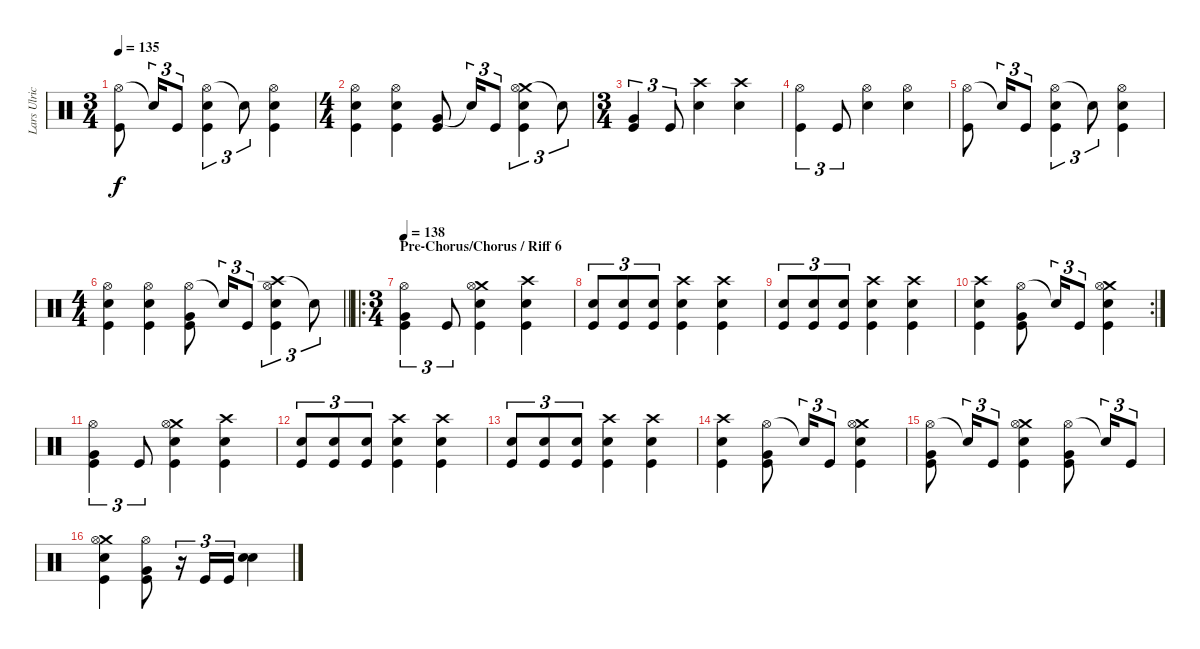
\track ("Lars Ulrich" "Lars Ulric") {instrument percussion}
\staff {score}
\articulation defaults
\ts (3 4)
\tempo 135
\clef neutral
\ks c
("Hi-Hat (open)" "Kick (hit)").8{dy f} "Snare (hit)"{t}.16{tu (3 2)} "Kick (hit)".8{tu (3 2)} ("Hi-Hat (open)" "Snare (hit) 2" "Kick (hit)").4{tu (3 2)} "Snare (hit)"{t}.8{tu (3 2)} ("Hi-Hat (open)" "Snare (hit) 2" "Kick (hit)").4 |
\ts (4 4)
("Hi-Hat (open)" "Snare (hit) 2" "Kick (hit)").4 ("Hi-Hat (open)" "Snare (hit) 2" "Kick (hit)").4 ("Very Low Tom (hit)" "Kick (hit)").8 "Snare (hit)"{t}.16{tu (3 2)} "Kick (hit)".8{tu (3 2)} ("Crash medium (hit)" "Hi-Hat (open)" "Snare (hit) 2" "Kick (hit)").4{tu (3 2)} "Snare (hit)"{t}.8{tu (3 2)} |
\ts (3 4)
("Very Low Tom (hit)" "Kick (hit)").4{tu (3 2)} "Kick (hit)".8{tu (3 2)} ("Crash high (hit)" "Snare (hit) 2").4 ("Crash high (hit)" "Snare (hit) 2").4 |
("Hi-Hat (open)" "Kick (hit)").4{tu (3 2)} "Kick (hit)".8{tu (3 2)} ("Hi-Hat (open)" "Snare (hit) 2").4 ("Hi-Hat (open)" "Snare (hit) 2").4 |
("Hi-Hat (open)" "Kick (hit)").8 "Snare (hit)"{t}.16{tu (3 2)} "Kick (hit)".8{tu (3 2)} ("Hi-Hat (open)" "Snare (hit) 2" "Kick (hit)").4{tu (3 2)} "Snare (hit)"{t}.8{tu (3 2)} ("Hi-Hat (open)" "Snare (hit) 2" "Kick (hit)").4 |
\ts (4 4)
\barLineRight lightlight
("Hi-Hat (open)" "Snare (hit) 2" "Kick (hit)").4 ("Hi-Hat (open)" "Snare (hit) 2" "Kick (hit)").4 ("Hi-Hat (open)" "Very Low Tom (hit)" "Kick (hit)").8 "Snare (hit)"{t}.16{tu (3 2)} "Kick (hit)".8{tu (3 2)} ("Crash high (hit)" "Hi-Hat (open)" "Snare (hit) 2" "Kick (hit)").4{tu (3 2)} "Snare (hit)"{t}.8{tu (3 2)} |
\ro
\ts (3 4)
\section ("" "Pre-Chorus/Chorus / Riff 6")
\tempo 138
("Hi-Hat (open)" "Very Low Tom (hit)" "Kick (hit)").4{tu (3 2)} "Kick (hit)".8{tu (3 2)} ("Crash medium (hit)" "Hi-Hat (open)" "Snare (hit) 2" "Kick (hit)").4 ("Crash high (hit)" "Snare (hit) 2" "Kick (hit)").4 |
("Snare (hit) 2" "Kick (hit)").8{tu (3 2)} ("Snare (hit) 2" "Kick (hit)").8{tu (3 2)} ("Snare (hit) 2" "Kick (hit)").8{tu (3 2)} ("Crash high (hit)" "Snare (hit) 2" "Kick (hit)").4 ("Crash high (hit)" "Snare (hit) 2" "Kick (hit)").4 |
("Snare (hit) 2" "Kick (hit)").8{tu (3 2)} ("Snare (hit) 2" "Kick (hit)").8{tu (3 2)} ("Snare (hit) 2" "Kick (hit)").8{tu (3 2)} ("Crash high (hit)" "Snare (hit) 2" "Kick (hit)").4 ("Crash high (hit)" "Snare (hit) 2" "Kick (hit)").4 |
\rc 2
("Crash high (hit)" "Snare (hit) 2" "Kick (hit)").4 ("Hi-Hat (open)" "Very Low Tom (hit)" "Kick (hit)").8 "Snare (hit)"{t}.16{tu (3 2)} "Kick (hit)".8{tu (3 2)} ("Crash medium (hit)" "Hi-Hat (open)" "Snare (hit) 2" "Kick (hit)").4 |
("Hi-Hat (open)" "Very Low Tom (hit)" "Kick (hit)").4{tu (3 2)} "Kick (hit)".8{tu (3 2)} ("Crash medium (hit)" "Hi-Hat (open)" "Snare (hit) 2" "Kick (hit)").4 ("Crash high (hit)" "Snare (hit) 2" "Kick (hit)").4 |
("Snare (hit) 2" "Kick (hit)").8{tu (3 2)} ("Snare (hit) 2" "Kick (hit)").8{tu (3 2)} ("Snare (hit) 2" "Kick (hit)").8{tu (3 2)} ("Crash high (hit)" "Snare (hit) 2" "Kick (hit)").4 ("Crash high (hit)" "Snare (hit) 2" "Kick (hit)").4 |
("Snare (hit) 2" "Kick (hit)").8{tu (3 2)} ("Snare (hit) 2" "Kick (hit)").8{tu (3 2)} ("Snare (hit) 2" "Kick (hit)").8{tu (3 2)} ("Crash high (hit)" "Snare (hit) 2" "Kick (hit)").4 ("Crash high (hit)" "Snare (hit) 2" "Kick (hit)").4 |
("Crash high (hit)" "Snare (hit) 2" "Kick (hit)").4 ("Hi-Hat (open)" "Very Low Tom (hit)" "Kick (hit)").8 "Snare (hit)"{t}.16{tu (3 2)} "Kick (hit)".8{tu (3 2)} ("Crash medium (hit)" "Hi-Hat (open)" "Snare (hit) 2" "Kick (hit)").4 |
("Hi-Hat (open)" "Very Low Tom (hit)" "Kick (hit)").8 "Snare (hit)"{t}.16{tu (3 2)} "Kick (hit)".8{tu (3 2)} ("Crash medium (hit)" "Hi-Hat (open)" "Snare (hit) 2" "Kick (hit)").4 ("Hi-Hat (open)" "Very Low Tom (hit)" "Kick (hit)").8 "Snare (hit)"{t}.16{tu (3 2)} "Kick (hit)".8{tu (3 2)} |
("Crash medium (hit)" "Hi-Hat (open)" "Snare (hit) 2" "Kick (hit)").4 ("Hi-Hat (open)" "Very Low Tom (hit)" "Kick (hit)").8 r.16{tu (3 2)} "Kick (hit)".16{tu (3 2)} "Kick (hit)".16{tu (3 2)} ("Snare (hit) 2" "Snare (hit) 2").4{bd 240}
